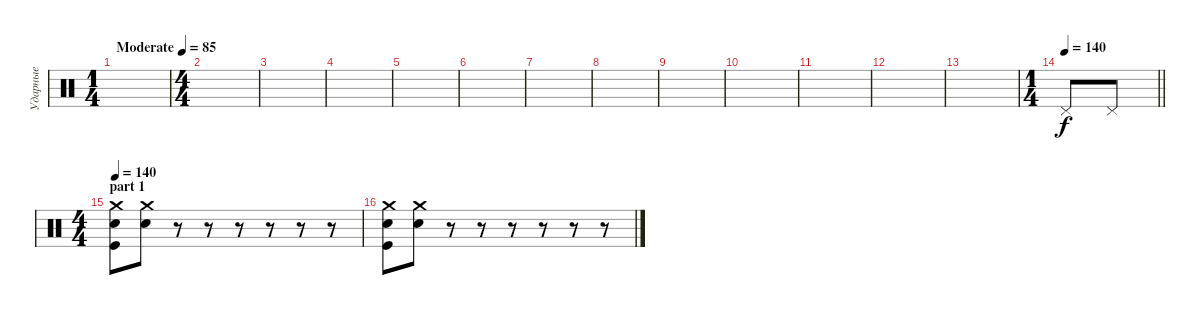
\track ("Ударные" "Ударные") {instrument percussion}
\staff {score}
\articulation defaults
\ts (1 4)
\tempo (85 "Moderate")
\clef neutral
\ks c
|
\ts (4 4)
|
|
|
|
|
|
|
|
|
|
|
|
\ts (1 4)
\tempo 140
\barLineRight lightlight "Pedal Hi-Hat (hit)".8 "Pedal Hi-Hat (hit)".8
|
\ts (4 4)
\section ("" "part 1")
\tempo 140
("Crash medium (hit)" "Electric Snare (hit)" "Kick (hit)").8{dy f} ("Crash medium (hit)" "Electric Snare (hit)").8 r.8 r.8 r.8 r.8 r.8 r.8 |
("Crash medium (hit)" "Electric Snare (hit)" "Kick (hit)").8 ("Crash medium (hit)" "Electric Snare (hit)").8 r.8 r.8 r.8 r.8 r.8 r.8
